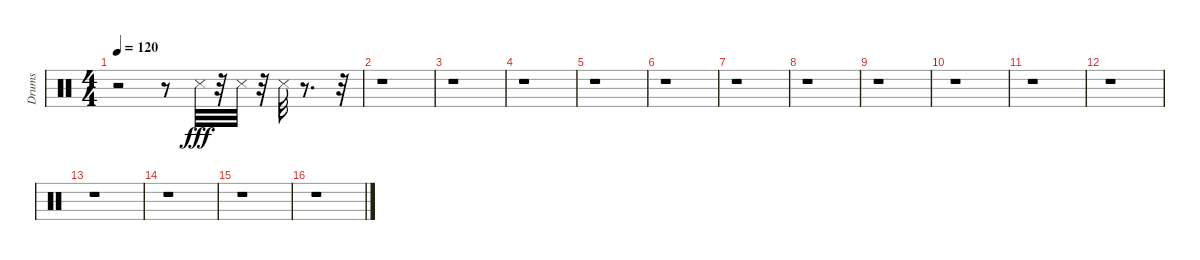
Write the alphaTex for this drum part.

\track ("Drums" "Drums") {instrument percussion}
\staff {score}
\articulation defaults
\ts (4 4)
\tempo 120
\clef neutral
\ks c
r.2{dy fff} r.8 "Snare (side stick) 3".32 r.32 "Snare (side stick) 3".32 r.32 "Snare (side stick) 3".32 r.8{d} r.32 |
r.1 |
r.1 |
r.1 |
r.1 |
r.1 |
r.1 |
r.1 |
r.1 |
r.1 |
r.1 |
r.1 |
r.1 |
r.1 |
r.1 |
r.1
